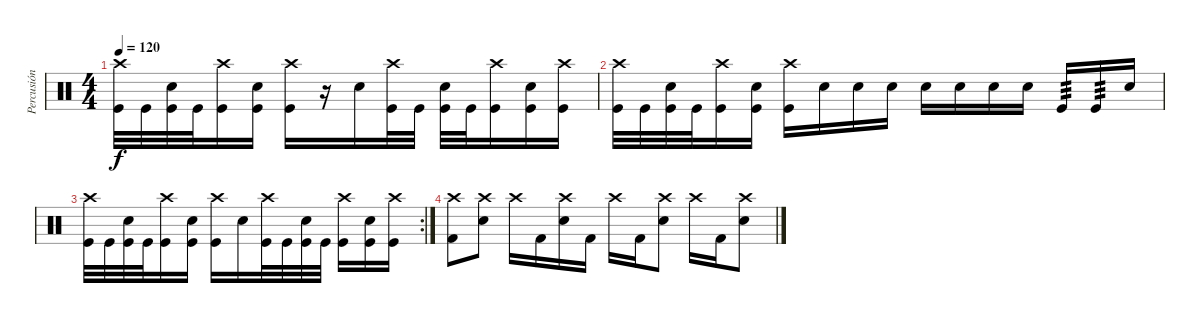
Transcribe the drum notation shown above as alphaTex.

\track ("Percusión" "Percusión") {instrument percussion}
\staff {score}
\articulation defaults
\ts (4 4)
\tempo 120
\clef neutral
\ks c
("Crash high (hit)" "Kick (hit)").32{dy f} "Kick (hit)".32 ("Electric Snare (hit)" "Kick (hit)").32 "Kick (hit)".32 ("Crash high (hit)" "Kick (hit)").16 ("Electric Snare (hit)" "Kick (hit)").16 ("Crash high (hit)" "Kick (hit)").16 r.16 "Snare (hit)".16 ("Crash high (hit)" "Kick (hit)").32 "Kick (hit)".32 ("Electric Snare (hit)" "Kick (hit)").32 "Kick (hit)".32 ("Crash high (hit)" "Kick (hit)").16 ("Electric Snare (hit)" "Kick (hit)").16 ("Crash high (hit)" "Kick (hit)").16 |
("Crash high (hit)" "Kick (hit)").32 "Kick (hit)".32 ("Electric Snare (hit)" "Kick (hit)").32 "Kick (hit)".32 ("Crash high (hit)" "Kick (hit)").16 ("Electric Snare (hit)" "Kick (hit)").16 ("Crash high (hit)" "Kick (hit)").16 "Snare (hit)".16 "Snare (hit)".16 "Snare (hit)".16 "Snare (hit)".16 "Snare (hit)".16 "Snare (hit)".16 "Snare (hit)".16 "Kick (hit)".16{tp 3} "Kick (hit)".16{tp 3} "Electric Snare (hit)".16 |
\rc 2
("Crash high (hit)" "Kick (hit)").32 "Kick (hit)".32 ("Electric Snare (hit)" "Kick (hit)").32 "Kick (hit)".32 ("Crash high (hit)" "Kick (hit)").16 ("Electric Snare (hit)" "Kick (hit)").16 ("Crash high (hit)" "Kick (hit)").16 "Snare (hit)".16 ("Crash high (hit)" "Kick (hit)").32 "Kick (hit)".32 ("Electric Snare (hit)" "Kick (hit)").32 "Kick (hit)".32 ("Crash high (hit)" "Kick (hit)").16 ("Electric Snare (hit)" "Kick (hit)").16 ("Crash high (hit)" "Kick (hit)").16 |
("Crash high (hit)" "Kick (hit) 2").8 ("Crash high (hit)" "Electric Snare (hit)").8 "Crash high (hit)".16 "Kick (hit) 2".16 ("Crash high (hit)" "Electric Snare (hit)").16 "Kick (hit) 2".16 "Crash high (hit)".16 "Kick (hit) 2".16 ("Crash high (hit)" "Electric Snare (hit)").8 "Crash high (hit)".16 "Kick (hit) 2".16 ("Crash high (hit)" "Electric Snare (hit)").8
